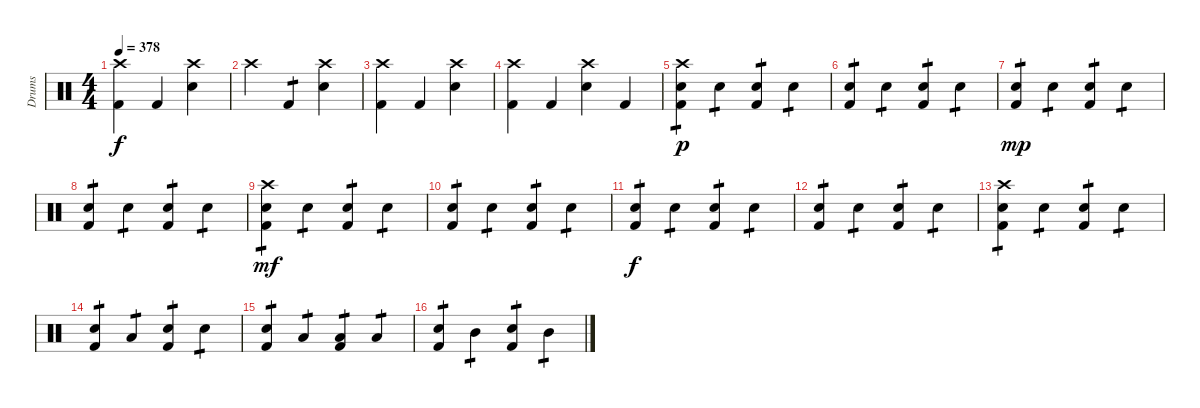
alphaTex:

\track ("Drums" "Drums") {instrument percussion}
\staff {score}
\articulation defaults
\ts (4 4)
\tempo 378
\clef neutral
\ks c
("Crash high (hit)" "Kick (hit) 2").4{dy f} "Kick (hit) 2".4 ("Crash high (hit)" "Electric Snare (hit)").4 |
"Crash high (hit)".4 "Kick (hit) 2".4{tp 1} ("Crash high (hit)" "Electric Snare (hit)").4 |
("Crash high (hit)" "Kick (hit) 2").4 "Kick (hit) 2".4 ("Crash high (hit)" "Electric Snare (hit)").4 |
("Crash high (hit)" "Kick (hit) 2").4 "Kick (hit) 2".4 ("Crash high (hit)" "Electric Snare (hit)").4 "Kick (hit) 2".4 |
("Crash high (hit)" "Electric Snare (hit)" "Kick (hit) 2").4{tp 1 dy p} "Electric Snare (hit)".4{tp 1} ("Electric Snare (hit)" "Kick (hit) 2").4{tp 1} "Electric Snare (hit)".4{tp 1} |
("Electric Snare (hit)" "Kick (hit) 2").4{tp 1} "Electric Snare (hit)".4{tp 1} ("Electric Snare (hit)" "Kick (hit) 2").4{tp 1} "Electric Snare (hit)".4{tp 1} |
("Electric Snare (hit)" "Kick (hit) 2").4{tp 1 dy mp} "Electric Snare (hit)".4{tp 1} ("Electric Snare (hit)" "Kick (hit) 2").4{tp 1} "Electric Snare (hit)".4{tp 1} |
("Electric Snare (hit)" "Kick (hit) 2").4{tp 1} "Electric Snare (hit)".4{tp 1} ("Electric Snare (hit)" "Kick (hit) 2").4{tp 1} "Electric Snare (hit)".4{tp 1} |
("Crash high (hit)" "Electric Snare (hit)" "Kick (hit) 2").4{tp 1 dy mf} "Electric Snare (hit)".4{tp 1} ("Electric Snare (hit)" "Kick (hit) 2").4{tp 1} "Electric Snare (hit)".4{tp 1} |
("Electric Snare (hit)" "Kick (hit) 2").4{tp 1} "Electric Snare (hit)".4{tp 1} ("Electric Snare (hit)" "Kick (hit) 2").4{tp 1} "Electric Snare (hit)".4{tp 1} |
("Electric Snare (hit)" "Kick (hit) 2").4{tp 1 dy f} "Electric Snare (hit)".4{tp 1} ("Electric Snare (hit)" "Kick (hit) 2").4{tp 1} "Electric Snare (hit)".4{tp 1} |
("Electric Snare (hit)" "Kick (hit) 2").4{tp 1} "Electric Snare (hit)".4{tp 1} ("Electric Snare (hit)" "Kick (hit) 2").4{tp 1} "Electric Snare (hit)".4{tp 1} |
("Crash high (hit)" "Electric Snare (hit)" "Kick (hit) 2").4{tp 1} "Electric Snare (hit)".4{tp 1} ("Electric Snare (hit)" "Kick (hit) 2").4{tp 1} "Electric Snare (hit)".4{tp 1} |
("Electric Snare (hit)" "Kick (hit) 2").4{tp 1} "Low Tom (hit)".4{tp 1} ("Electric Snare (hit)" "Kick (hit) 2").4{tp 1} "Electric Snare (hit)".4{tp 1} |
("Electric Snare (hit)" "Kick (hit) 2").4{tp 1} "Low Tom (hit)".4{tp 1} ("Low Tom (hit)" "Kick (hit) 2").4{tp 1} "Low Tom (hit)".4{tp 1} |
("Electric Snare (hit)" "Kick (hit) 2").4{tp 1} "Mid Tom (hit)".4{tp 1} ("Electric Snare (hit)" "Kick (hit) 2").4{tp 1} "Mid Tom (hit)".4{tp 1}
